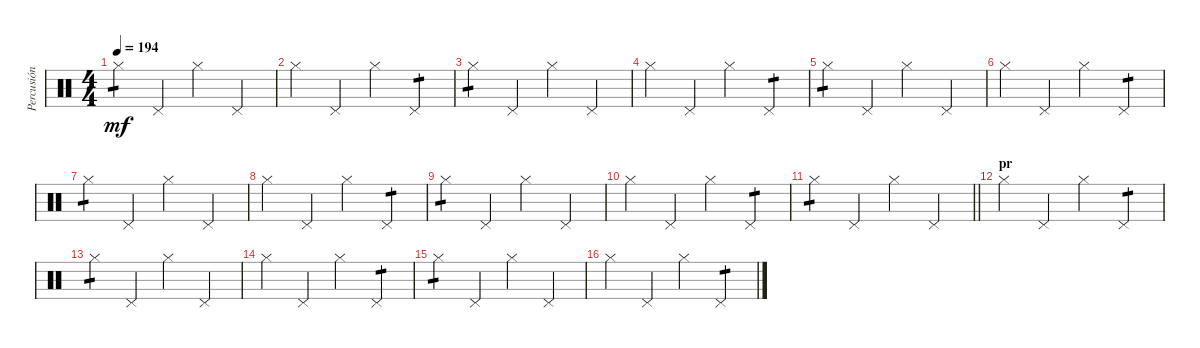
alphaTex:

\track ("Percusión" "Percusión") {instrument percussion}
\staff {score}
\articulation defaults
\ts (4 4)
\tempo 194
\clef neutral
\ks c "Hi-Hat (closed)".4{tp 1 dy mf} "Pedal Hi-Hat (hit)".4 "Hi-Hat (closed)".4 "Pedal Hi-Hat (hit)".4
|
"Hi-Hat (closed)".4 "Pedal Hi-Hat (hit)".4 "Hi-Hat (closed)".4 "Pedal Hi-Hat (hit)".4{tp 1} |
"Hi-Hat (closed)".4{tp 1} "Pedal Hi-Hat (hit)".4 "Hi-Hat (closed)".4 "Pedal Hi-Hat (hit)".4 |
"Hi-Hat (closed)".4 "Pedal Hi-Hat (hit)".4 "Hi-Hat (closed)".4 "Pedal Hi-Hat (hit)".4{tp 1} |
"Hi-Hat (closed)".4{tp 1} "Pedal Hi-Hat (hit)".4 "Hi-Hat (closed)".4 "Pedal Hi-Hat (hit)".4 |
"Hi-Hat (closed)".4 "Pedal Hi-Hat (hit)".4 "Hi-Hat (closed)".4 "Pedal Hi-Hat (hit)".4{tp 1} |
"Hi-Hat (closed)".4{tp 1} "Pedal Hi-Hat (hit)".4 "Hi-Hat (closed)".4 "Pedal Hi-Hat (hit)".4 |
"Hi-Hat (closed)".4 "Pedal Hi-Hat (hit)".4 "Hi-Hat (closed)".4 "Pedal Hi-Hat (hit)".4{tp 1} |
"Hi-Hat (closed)".4{tp 1} "Pedal Hi-Hat (hit)".4 "Hi-Hat (closed)".4 "Pedal Hi-Hat (hit)".4 |
"Hi-Hat (closed)".4 "Pedal Hi-Hat (hit)".4 "Hi-Hat (closed)".4 "Pedal Hi-Hat (hit)".4{tp 1} |
\barLineRight lightlight "Hi-Hat (closed)".4{tp 1} "Pedal Hi-Hat (hit)".4 "Hi-Hat (closed)".4 "Pedal Hi-Hat (hit)".4
|
\section ("" "pr")
"Hi-Hat (closed)".4 "Pedal Hi-Hat (hit)".4 "Hi-Hat (closed)".4 "Pedal Hi-Hat (hit)".4{tp 1} |
"Hi-Hat (closed)".4{tp 1} "Pedal Hi-Hat (hit)".4 "Hi-Hat (closed)".4 "Pedal Hi-Hat (hit)".4 |
"Hi-Hat (closed)".4 "Pedal Hi-Hat (hit)".4 "Hi-Hat (closed)".4 "Pedal Hi-Hat (hit)".4{tp 1} |
"Hi-Hat (closed)".4{tp 1} "Pedal Hi-Hat (hit)".4 "Hi-Hat (closed)".4 "Pedal Hi-Hat (hit)".4 |
"Hi-Hat (closed)".4 "Pedal Hi-Hat (hit)".4 "Hi-Hat (closed)".4 "Pedal Hi-Hat (hit)".4{tp 1}
